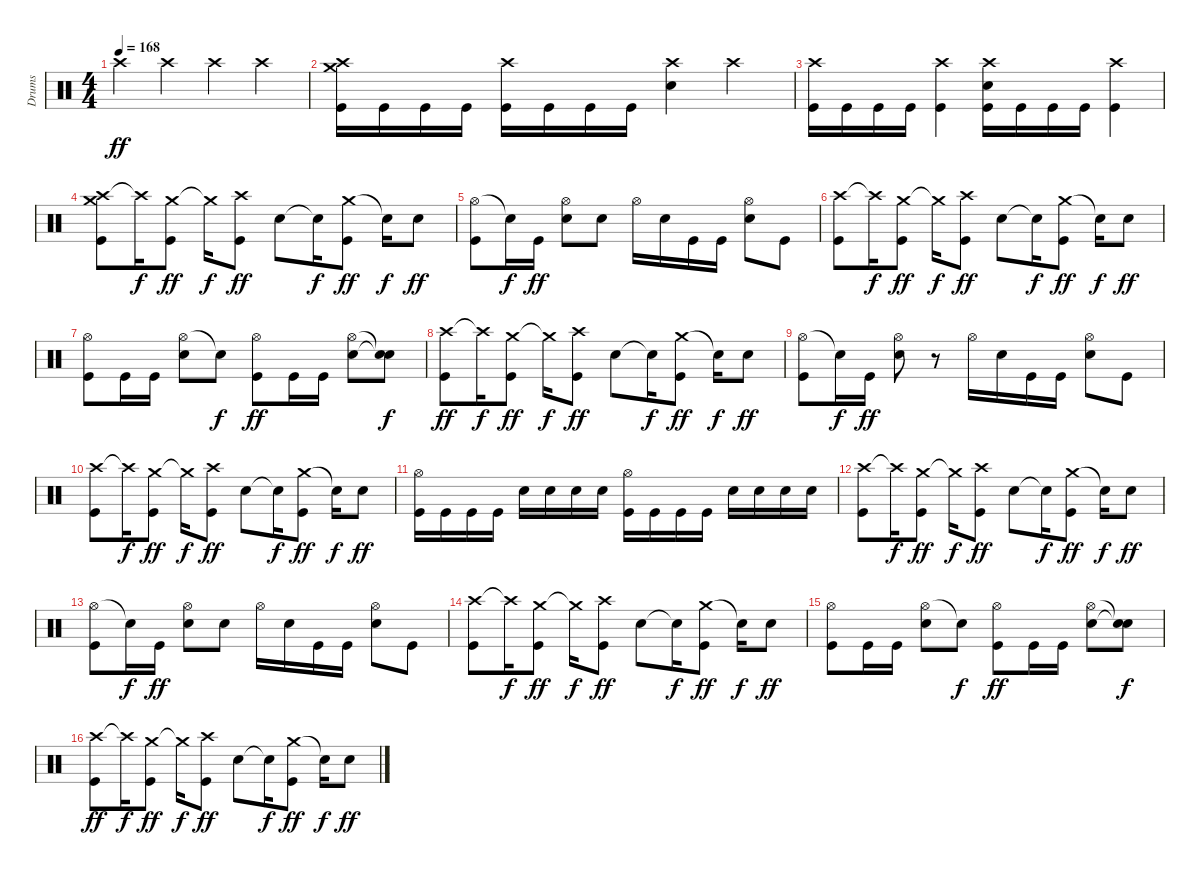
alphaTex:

\track ("Drums" "Drums") {instrument percussion}
\staff {score}
\articulation defaults
\ts (4 4)
\tempo 168
\clef neutral
\ks c "Crash high (hit)".4{dy ff} "Crash high (hit)".4 "Crash high (hit)".4 "Crash high (hit)".4
|
("Crash high (hit)" "Crash medium (hit)" "Kick (hit)").16 "Kick (hit)".16 "Kick (hit)".16 "Kick (hit)".16 ("Crash high (hit)" "Kick (hit)").16 "Kick (hit)".16 "Kick (hit)".16 "Kick (hit)".16 ("Crash high (hit)" "Snare (hit) 2").4 "Crash high (hit)".4 |
("Crash high (hit)" "Kick (hit)").16 "Kick (hit)".16 "Kick (hit)".16 "Kick (hit)".16 ("Crash high (hit)" "Kick (hit)").4 ("Crash high (hit)" "Snare (hit) 2" "Kick (hit)").16 "Kick (hit)".16 "Kick (hit)".16 "Kick (hit)".16 ("Crash high (hit)" "Kick (hit)").4 |
("Crash high (hit)" "Crash medium (hit)" "Kick (hit)").8 "Crash high (hit)"{t}.16{dy f} ("Crash medium (hit)" "Kick (hit)").8{dy ff} "Crash medium (hit)"{t}.16{dy f} ("Crash high (hit)" "Kick (hit)").8{dy ff} "Snare (hit) 2".8 "Snare (hit)"{t}.16{dy f} ("Crash medium (hit)" "Kick (hit)").8{dy ff} "Snare (hit)"{t}.16{dy f} "Snare (hit) 2".8{dy ff} |
("Hi-Hat (open)" "Kick (hit)").8 "Snare (hit)"{t}.16{dy f} "Kick (hit)".16{dy ff} ("Hi-Hat (open)" "Snare (hit) 2").8 "Snare (hit) 2".8 "Hi-Hat (open)".16 "Snare (hit) 2".16 "Kick (hit)".16 "Kick (hit)".16 ("Hi-Hat (open)" "Snare (hit) 2").8 "Kick (hit)".8 |
("Crash high (hit)" "Kick (hit)").8 "Crash high (hit)"{t}.16{dy f} ("Crash medium (hit)" "Kick (hit)").8{dy ff} "Crash medium (hit)"{t}.16{dy f} ("Crash high (hit)" "Kick (hit)").8{dy ff} "Snare (hit) 2".8 "Snare (hit)"{t}.16{dy f} ("Crash medium (hit)" "Kick (hit)").8{dy ff} "Snare (hit)"{t}.16{dy f} "Snare (hit) 2".8{dy ff} |
("Hi-Hat (open)" "Kick (hit)").8 "Kick (hit)".16 "Kick (hit)".16 ("Hi-Hat (open)" "Snare (hit) 2").8 "Snare (hit)"{t}.8{dy f} ("Hi-Hat (open)" "Kick (hit)").8{dy ff} "Kick (hit)".16 "Kick (hit)".16 ("Hi-Hat (open)" "Snare (hit) 2").8 ("Snare (hit)"{t} "Snare (hit)"{t}).8{dy f} |
("Crash high (hit)" "Kick (hit)").8{dy ff} "Crash high (hit)"{t}.16{dy f} ("Crash medium (hit)" "Kick (hit)").8{dy ff} "Crash medium (hit)"{t}.16{dy f} ("Crash high (hit)" "Kick (hit)").8{dy ff} "Snare (hit) 2".8 "Snare (hit)"{t}.16{dy f} ("Crash medium (hit)" "Kick (hit)").8{dy ff} "Snare (hit)"{t}.16{dy f} "Snare (hit) 2".8{dy ff} |
("Hi-Hat (open)" "Kick (hit)").8 "Snare (hit)"{t}.16{dy f} "Kick (hit)".16{dy ff} ("Hi-Hat (open)" "Snare (hit) 2").8 r.8 "Hi-Hat (open)".16 "Snare (hit) 2".16 "Kick (hit)".16 "Kick (hit)".16 ("Hi-Hat (open)" "Snare (hit) 2").8 "Kick (hit)".8 |
("Crash high (hit)" "Kick (hit)").8 "Crash high (hit)"{t}.16{dy f} ("Crash medium (hit)" "Kick (hit)").8{dy ff} "Crash medium (hit)"{t}.16{dy f} ("Crash high (hit)" "Kick (hit)").8{dy ff} "Snare (hit) 2".8 "Snare (hit)"{t}.16{dy f} ("Crash medium (hit)" "Kick (hit)").8{dy ff} "Snare (hit)"{t}.16{dy f} "Snare (hit) 2".8{dy ff} |
("Hi-Hat (open)" "Kick (hit)").16 "Kick (hit)".16 "Kick (hit)".16 "Kick (hit)".16 "Snare (hit) 2".16 "Snare (hit) 2".16 "Snare (hit) 2".16 "Snare (hit) 2".16 ("Hi-Hat (open)" "Kick (hit)").16 "Kick (hit)".16 "Kick (hit)".16 "Kick (hit)".16 "Snare (hit) 2".16 "Snare (hit) 2".16 "Snare (hit) 2".16 "Snare (hit) 2".16 |
("Crash high (hit)" "Kick (hit)").8 "Crash high (hit)"{t}.16{dy f} ("Crash medium (hit)" "Kick (hit)").8{dy ff} "Crash medium (hit)"{t}.16{dy f} ("Crash high (hit)" "Kick (hit)").8{dy ff} "Snare (hit) 2".8 "Snare (hit)"{t}.16{dy f} ("Crash medium (hit)" "Kick (hit)").8{dy ff} "Snare (hit)"{t}.16{dy f} "Snare (hit) 2".8{dy ff} |
("Hi-Hat (open)" "Kick (hit)").8 "Snare (hit)"{t}.16{dy f} "Kick (hit)".16{dy ff} ("Hi-Hat (open)" "Snare (hit) 2").8 "Snare (hit) 2".8 "Hi-Hat (open)".16 "Snare (hit) 2".16 "Kick (hit)".16 "Kick (hit)".16 ("Hi-Hat (open)" "Snare (hit) 2").8 "Kick (hit)".8 |
("Crash high (hit)" "Kick (hit)").8 "Crash high (hit)"{t}.16{dy f} ("Crash medium (hit)" "Kick (hit)").8{dy ff} "Crash medium (hit)"{t}.16{dy f} ("Crash high (hit)" "Kick (hit)").8{dy ff} "Snare (hit) 2".8 "Snare (hit)"{t}.16{dy f} ("Crash medium (hit)" "Kick (hit)").8{dy ff} "Snare (hit)"{t}.16{dy f} "Snare (hit) 2".8{dy ff} |
("Hi-Hat (open)" "Kick (hit)").8 "Kick (hit)".16 "Kick (hit)".16 ("Hi-Hat (open)" "Snare (hit) 2").8 "Snare (hit)"{t}.8{dy f} ("Hi-Hat (open)" "Kick (hit)").8{dy ff} "Kick (hit)".16 "Kick (hit)".16 ("Hi-Hat (open)" "Snare (hit) 2").8 ("Snare (hit)"{t} "Snare (hit)"{t}).8{dy f} |
("Crash high (hit)" "Kick (hit)").8{dy ff} "Crash high (hit)"{t}.16{dy f} ("Crash medium (hit)" "Kick (hit)").8{dy ff} "Crash medium (hit)"{t}.16{dy f} ("Crash high (hit)" "Kick (hit)").8{dy ff} "Snare (hit) 2".8 "Snare (hit)"{t}.16{dy f} ("Crash medium (hit)" "Kick (hit)").8{dy ff} "Snare (hit)"{t}.16{dy f} "Snare (hit) 2".8{dy ff}
